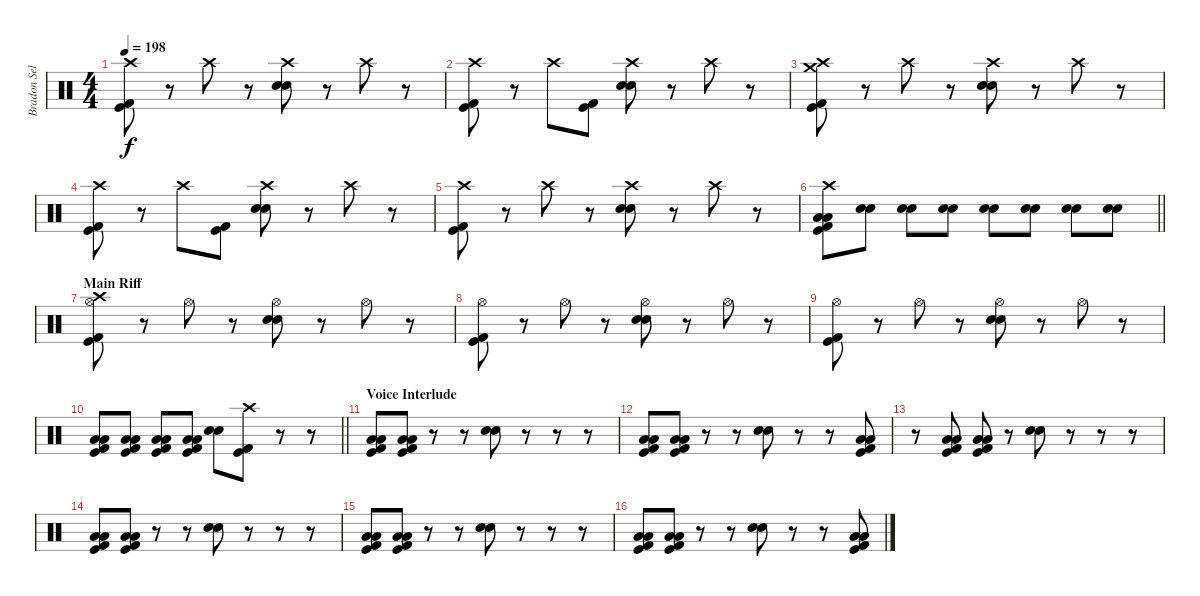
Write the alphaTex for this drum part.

\track ("Bradon Sellar" "Bradon Sel") {instrument percussion}
\staff {score}
\articulation defaults
\ts (4 4)
\tempo 198
\clef neutral
\ks c
("Crash high (hit)" "Kick (hit) 2" "Kick (hit)").8{dy f} r.8 "Crash high (hit)".8 r.8 ("Crash high (hit)" "Electric Snare (hit)" "Snare (hit) 2").8 r.8 "Crash high (hit)".8 r.8 |
("Crash high (hit)" "Kick (hit) 2" "Kick (hit)").8 r.8 "Crash high (hit)".8 ("Kick (hit) 2" "Kick (hit)").8 ("Crash high (hit)" "Electric Snare (hit)" "Snare (hit) 2").8 r.8 "Crash high (hit)".8 r.8 |
("Crash medium (hit)" "Crash high (hit)" "Kick (hit) 2" "Kick (hit)").8 r.8 "Crash high (hit)".8 r.8 ("Crash high (hit)" "Electric Snare (hit)" "Snare (hit) 2").8 r.8 "Crash high (hit)".8 r.8 |
("Crash high (hit)" "Kick (hit) 2" "Kick (hit)").8 r.8 "Crash high (hit)".8 ("Kick (hit) 2" "Kick (hit)").8 ("Crash high (hit)" "Electric Snare (hit)" "Snare (hit) 2").8 r.8 "Crash high (hit)".8 r.8 |
("Crash high (hit)" "Kick (hit) 2" "Kick (hit)").8 r.8 "Crash high (hit)".8 r.8 ("Crash high (hit)" "Electric Snare (hit)" "Snare (hit) 2").8 r.8 "Crash high (hit)".8 r.8 |
\barLineRight lightlight
("Crash high (hit)" "Low Floor Tom (hit)" "Low Floor Tom (hit)" "Kick (hit) 2" "Kick (hit)").8 ("Electric Snare (hit)" "Snare (hit) 2").8 ("Electric Snare (hit)" "Snare (hit) 2").8 ("Electric Snare (hit)" "Snare (hit) 2").8 ("Electric Snare (hit)" "Snare (hit) 2").8 ("Electric Snare (hit)" "Snare (hit) 2").8 ("Electric Snare (hit)" "Snare (hit) 2").8 ("Electric Snare (hit)" "Snare (hit) 2").8 |
\section ("" "Main Riff")
("Crash high (hit)" "Hi-Hat (open)" "Kick (hit) 2" "Kick (hit)").8 r.8 "Hi-Hat (open)".8 r.8 ("Hi-Hat (open)" "Electric Snare (hit)" "Snare (hit) 2").8 r.8 "Hi-Hat (open)".8 r.8 |
("Hi-Hat (open)" "Kick (hit) 2" "Kick (hit)").8 r.8 "Hi-Hat (open)".8 r.8 ("Hi-Hat (open)" "Electric Snare (hit)" "Snare (hit) 2").8 r.8 "Hi-Hat (open)".8 r.8 |
("Hi-Hat (open)" "Kick (hit) 2" "Kick (hit)").8 r.8 "Hi-Hat (open)".8 r.8 ("Hi-Hat (open)" "Electric Snare (hit)" "Snare (hit) 2").8 r.8 "Hi-Hat (open)".8 r.8 |
\barLineRight lightlight
("Low Floor Tom (hit)" "Low Floor Tom (hit)" "Kick (hit) 2" "Kick (hit)").8 ("Low Floor Tom (hit)" "Low Floor Tom (hit)" "Kick (hit) 2" "Kick (hit)").8 ("Low Floor Tom (hit)" "Low Floor Tom (hit)" "Kick (hit) 2" "Kick (hit)").8 ("Low Floor Tom (hit)" "Low Floor Tom (hit)" "Kick (hit) 2" "Kick (hit)").8 ("Snare (hit) 2" "Electric Snare (hit)").8 ("Crash high (hit)" "Kick (hit) 2" "Kick (hit)").8 r.8 r.8 |
\section ("" "Voice Interlude")
("Low Floor Tom (hit)" "Low Floor Tom (hit)" "Kick (hit) 2" "Kick (hit)").8 ("Low Floor Tom (hit)" "Low Floor Tom (hit)" "Kick (hit) 2" "Kick (hit)").8 r.8 r.8 ("Electric Snare (hit)" "Snare (hit) 2").8 r.8 r.8 r.8 |
("Low Floor Tom (hit)" "Low Floor Tom (hit)" "Kick (hit) 2" "Kick (hit)").8 ("Low Floor Tom (hit)" "Low Floor Tom (hit)" "Kick (hit) 2" "Kick (hit)").8 r.8 r.8 ("Electric Snare (hit)" "Snare (hit) 2").8 r.8 r.8 ("Low Floor Tom (hit)" "Low Floor Tom (hit)" "Kick (hit) 2" "Kick (hit)").8 |
r.8 ("Low Floor Tom (hit)" "Low Floor Tom (hit)" "Kick (hit) 2" "Kick (hit)").8 ("Low Floor Tom (hit)" "Low Floor Tom (hit)" "Kick (hit) 2" "Kick (hit)").8 r.8 ("Electric Snare (hit)" "Snare (hit) 2").8 r.8 r.8 r.8 |
("Low Floor Tom (hit)" "Low Floor Tom (hit)" "Kick (hit) 2" "Kick (hit)").8 ("Low Floor Tom (hit)" "Low Floor Tom (hit)" "Kick (hit) 2" "Kick (hit)").8 r.8 r.8 ("Electric Snare (hit)" "Snare (hit) 2").8 r.8 r.8 r.8 |
("Low Floor Tom (hit)" "Low Floor Tom (hit)" "Kick (hit) 2" "Kick (hit)").8 ("Low Floor Tom (hit)" "Low Floor Tom (hit)" "Kick (hit) 2" "Kick (hit)").8 r.8 r.8 ("Electric Snare (hit)" "Snare (hit) 2").8 r.8 r.8 r.8 |
("Low Floor Tom (hit)" "Low Floor Tom (hit)" "Kick (hit) 2" "Kick (hit)").8 ("Low Floor Tom (hit)" "Low Floor Tom (hit)" "Kick (hit) 2" "Kick (hit)").8 r.8 r.8 ("Electric Snare (hit)" "Snare (hit) 2").8 r.8 r.8 ("Low Floor Tom (hit)" "Low Floor Tom (hit)" "Kick (hit) 2" "Kick (hit)").8
